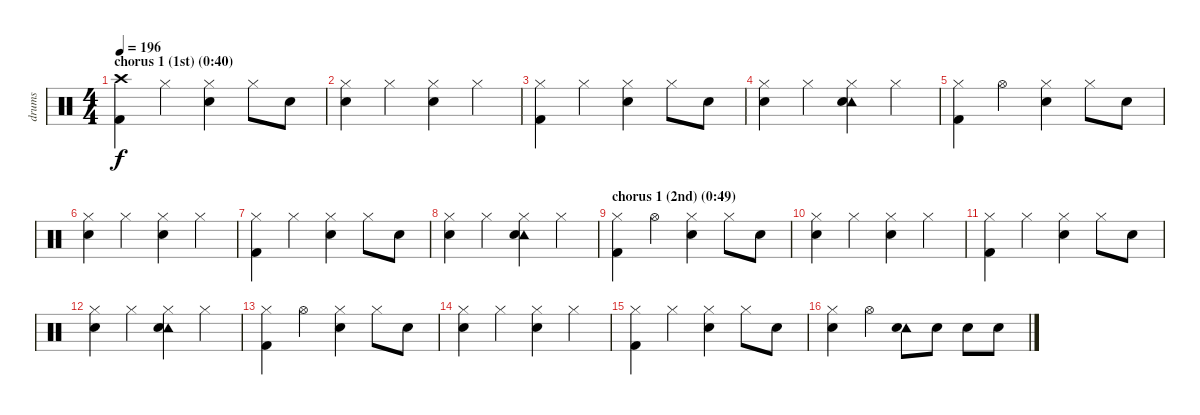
\track ("drums" "drums") {instrument percussion}
\staff {score}
\articulation defaults
\ts (4 4)
\section ("" "chorus 1 (1st) (0:40)")
\tempo 196
\clef neutral
\ks c
("Crash high (hit)" "Kick (hit) 2").4{dy f} "Hi-Hat (closed)".4 ("Hi-Hat (closed)" "Snare (hit) 2").4 "Hi-Hat (closed)".8 "Snare (hit) 2".8 |
("Hi-Hat (closed)" "Snare (hit) 2").4 "Hi-Hat (closed)".4 ("Hi-Hat (closed)" "Snare (hit) 2").4 "Hi-Hat (closed)".4 |
("Hi-Hat (closed)" "Kick (hit) 2").4 "Hi-Hat (closed)".4 ("Hi-Hat (closed)" "Snare (hit) 2").4 "Hi-Hat (closed)".8 "Snare (hit) 2".8 |
("Hi-Hat (closed)" "Snare (hit) 2").4 "Hi-Hat (closed)".4 ("Hi-Hat (closed)" "Tambourine (hit)" "Snare (hit) 2").4 "Hi-Hat (closed)".4 |
("Hi-Hat (closed)" "Kick (hit) 2").4 "Hi-Hat (open)".4 ("Hi-Hat (closed)" "Snare (hit) 2").4 "Hi-Hat (closed)".8 "Snare (hit) 2".8 |
("Hi-Hat (closed)" "Snare (hit) 2").4 "Hi-Hat (closed)".4 ("Hi-Hat (closed)" "Snare (hit) 2").4 "Hi-Hat (closed)".4 |
("Hi-Hat (closed)" "Kick (hit) 2").4 "Hi-Hat (closed)".4 ("Hi-Hat (closed)" "Snare (hit) 2").4 "Hi-Hat (closed)".8 "Snare (hit) 2".8 |
("Hi-Hat (closed)" "Snare (hit) 2").4 "Hi-Hat (closed)".4 ("Hi-Hat (closed)" "Tambourine (hit)" "Snare (hit) 2").4 "Hi-Hat (closed)".4 |
\section ("" "chorus 1 (2nd) (0:49)")
("Hi-Hat (closed)" "Kick (hit) 2").4 "Hi-Hat (open)".4 ("Hi-Hat (closed)" "Snare (hit) 2").4 "Hi-Hat (closed)".8 "Snare (hit) 2".8 |
("Hi-Hat (closed)" "Snare (hit) 2").4 "Hi-Hat (closed)".4 ("Hi-Hat (closed)" "Snare (hit) 2").4 "Hi-Hat (closed)".4 |
("Hi-Hat (closed)" "Kick (hit) 2").4 "Hi-Hat (closed)".4 ("Hi-Hat (closed)" "Snare (hit) 2").4 "Hi-Hat (closed)".8 "Snare (hit) 2".8 |
("Hi-Hat (closed)" "Snare (hit) 2").4 "Hi-Hat (closed)".4 ("Hi-Hat (closed)" "Tambourine (hit)" "Snare (hit) 2").4 "Hi-Hat (closed)".4 |
("Hi-Hat (closed)" "Kick (hit) 2").4 "Hi-Hat (open)".4 ("Hi-Hat (closed)" "Snare (hit) 2").4 "Hi-Hat (closed)".8 "Snare (hit) 2".8 |
("Hi-Hat (closed)" "Snare (hit) 2").4 "Hi-Hat (closed)".4 ("Hi-Hat (closed)" "Snare (hit) 2").4 "Hi-Hat (closed)".4 |
("Hi-Hat (closed)" "Kick (hit) 2").4 "Hi-Hat (closed)".4 ("Hi-Hat (closed)" "Snare (hit) 2").4 "Hi-Hat (closed)".8 "Snare (hit) 2".8 |
("Hi-Hat (closed)" "Snare (hit) 2").4 "Hi-Hat (open)".4 ("Tambourine (hit)" "Snare (hit) 2").8 "Snare (hit) 2".8 "Snare (hit) 2".8 "Snare (hit) 2".8
